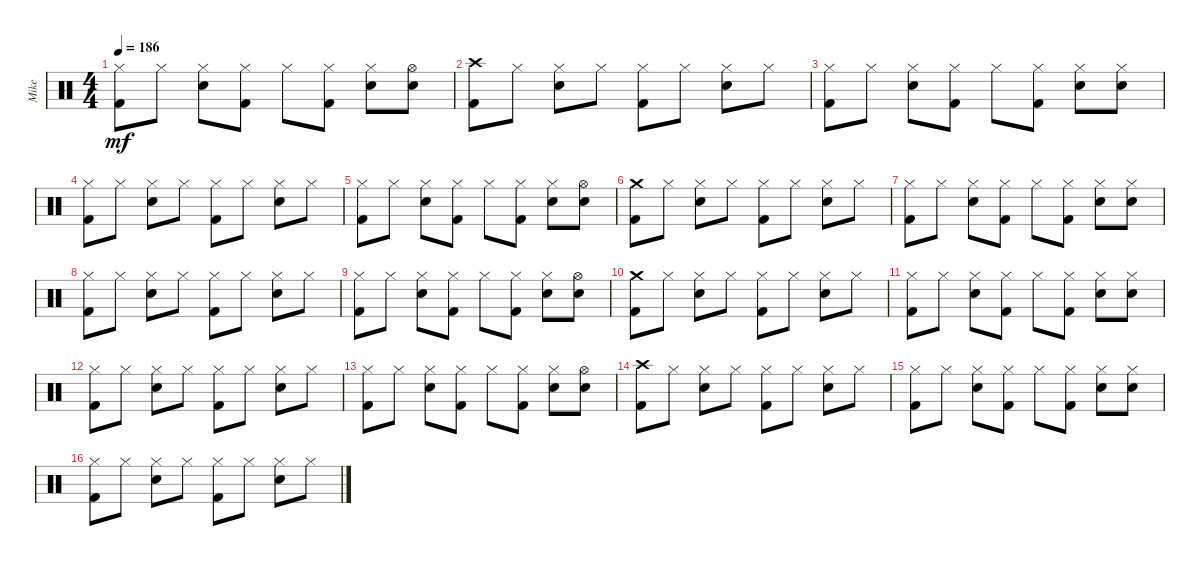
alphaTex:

\track ("Mike" "Mike") {instrument percussion}
\staff {score}
\articulation defaults
\ts (4 4)
\tempo 186
\clef neutral
\ks c
("Hi-Hat (closed)" "Kick (hit) 2").8{dy mf} "Hi-Hat (closed)".8 ("Hi-Hat (closed)" "Snare (hit) 2").8 ("Hi-Hat (closed)" "Kick (hit) 2").8 "Hi-Hat (closed)".8 ("Hi-Hat (closed)" "Kick (hit) 2").8 ("Hi-Hat (closed)" "Snare (hit) 2").8 ("Hi-Hat (open)" "Snare (hit) 2").8 |
("Crash high (hit)" "Kick (hit) 2").8 "Hi-Hat (closed)".8 ("Hi-Hat (closed)" "Snare (hit) 2").8 "Hi-Hat (closed)".8 ("Hi-Hat (closed)" "Kick (hit) 2").8 "Hi-Hat (closed)".8 ("Hi-Hat (closed)" "Snare (hit) 2").8 "Hi-Hat (closed)".8 |
("Hi-Hat (closed)" "Kick (hit) 2").8 "Hi-Hat (closed)".8 ("Hi-Hat (closed)" "Snare (hit) 2").8 ("Hi-Hat (closed)" "Kick (hit) 2").8 "Hi-Hat (closed)".8 ("Hi-Hat (closed)" "Kick (hit) 2").8 ("Hi-Hat (closed)" "Snare (hit) 2").8 ("Hi-Hat (closed)" "Snare (hit) 2").8 |
("Hi-Hat (closed)" "Kick (hit) 2").8 "Hi-Hat (closed)".8 ("Hi-Hat (closed)" "Snare (hit) 2").8 "Hi-Hat (closed)".8 ("Hi-Hat (closed)" "Kick (hit) 2").8 "Hi-Hat (closed)".8 ("Hi-Hat (closed)" "Snare (hit) 2").8 "Hi-Hat (closed)".8 |
("Hi-Hat (closed)" "Kick (hit) 2").8 "Hi-Hat (closed)".8 ("Hi-Hat (closed)" "Snare (hit) 2").8 ("Hi-Hat (closed)" "Kick (hit) 2").8 "Hi-Hat (closed)".8 ("Hi-Hat (closed)" "Kick (hit) 2").8 ("Hi-Hat (closed)" "Snare (hit) 2").8 ("Hi-Hat (open)" "Snare (hit) 2").8 |
("Crash medium (hit)" "Kick (hit) 2").8 "Hi-Hat (closed)".8 ("Hi-Hat (closed)" "Snare (hit) 2").8 "Hi-Hat (closed)".8 ("Hi-Hat (closed)" "Kick (hit) 2").8 "Hi-Hat (closed)".8 ("Hi-Hat (closed)" "Snare (hit) 2").8 "Hi-Hat (closed)".8 |
("Hi-Hat (closed)" "Kick (hit) 2").8 "Hi-Hat (closed)".8 ("Hi-Hat (closed)" "Snare (hit) 2").8 ("Hi-Hat (closed)" "Kick (hit) 2").8 "Hi-Hat (closed)".8 ("Hi-Hat (closed)" "Kick (hit) 2").8 ("Hi-Hat (closed)" "Snare (hit) 2").8 ("Hi-Hat (closed)" "Snare (hit) 2").8 |
("Hi-Hat (closed)" "Kick (hit) 2").8 "Hi-Hat (closed)".8 ("Hi-Hat (closed)" "Snare (hit) 2").8 "Hi-Hat (closed)".8 ("Hi-Hat (closed)" "Kick (hit) 2").8 "Hi-Hat (closed)".8 ("Hi-Hat (closed)" "Snare (hit) 2").8 "Hi-Hat (closed)".8 |
("Hi-Hat (closed)" "Kick (hit) 2").8 "Hi-Hat (closed)".8 ("Hi-Hat (closed)" "Snare (hit) 2").8 ("Hi-Hat (closed)" "Kick (hit) 2").8 "Hi-Hat (closed)".8 ("Hi-Hat (closed)" "Kick (hit) 2").8 ("Hi-Hat (closed)" "Snare (hit) 2").8 ("Hi-Hat (open)" "Snare (hit) 2").8 |
("Crash medium (hit)" "Kick (hit) 2").8 "Hi-Hat (closed)".8 ("Hi-Hat (closed)" "Snare (hit) 2").8 "Hi-Hat (closed)".8 ("Hi-Hat (closed)" "Kick (hit) 2").8 "Hi-Hat (closed)".8 ("Hi-Hat (closed)" "Snare (hit) 2").8 "Hi-Hat (closed)".8 |
("Hi-Hat (closed)" "Kick (hit) 2").8 "Hi-Hat (closed)".8 ("Hi-Hat (closed)" "Snare (hit) 2").8 ("Hi-Hat (closed)" "Kick (hit) 2").8 "Hi-Hat (closed)".8 ("Hi-Hat (closed)" "Kick (hit) 2").8 ("Hi-Hat (closed)" "Snare (hit) 2").8 ("Hi-Hat (closed)" "Snare (hit) 2").8 |
("Hi-Hat (closed)" "Kick (hit) 2").8 "Hi-Hat (closed)".8 ("Hi-Hat (closed)" "Snare (hit) 2").8 "Hi-Hat (closed)".8 ("Hi-Hat (closed)" "Kick (hit) 2").8 "Hi-Hat (closed)".8 ("Hi-Hat (closed)" "Snare (hit) 2").8 "Hi-Hat (closed)".8 |
("Hi-Hat (closed)" "Kick (hit) 2").8 "Hi-Hat (closed)".8 ("Hi-Hat (closed)" "Snare (hit) 2").8 ("Hi-Hat (closed)" "Kick (hit) 2").8 "Hi-Hat (closed)".8 ("Hi-Hat (closed)" "Kick (hit) 2").8 ("Hi-Hat (closed)" "Snare (hit) 2").8 ("Hi-Hat (open)" "Snare (hit) 2").8 |
("Crash high (hit)" "Kick (hit) 2").8 "Hi-Hat (closed)".8 ("Hi-Hat (closed)" "Snare (hit) 2").8 "Hi-Hat (closed)".8 ("Hi-Hat (closed)" "Kick (hit) 2").8 "Hi-Hat (closed)".8 ("Hi-Hat (closed)" "Snare (hit) 2").8 "Hi-Hat (closed)".8 |
("Hi-Hat (closed)" "Kick (hit) 2").8 "Hi-Hat (closed)".8 ("Hi-Hat (closed)" "Snare (hit) 2").8 ("Hi-Hat (closed)" "Kick (hit) 2").8 "Hi-Hat (closed)".8 ("Hi-Hat (closed)" "Kick (hit) 2").8 ("Hi-Hat (closed)" "Snare (hit) 2").8 ("Hi-Hat (closed)" "Snare (hit) 2").8 |
("Hi-Hat (closed)" "Kick (hit) 2").8 "Hi-Hat (closed)".8 ("Hi-Hat (closed)" "Snare (hit) 2").8 "Hi-Hat (closed)".8 ("Hi-Hat (closed)" "Kick (hit) 2").8 "Hi-Hat (closed)".8 ("Hi-Hat (closed)" "Snare (hit) 2").8 "Hi-Hat (closed)".8
